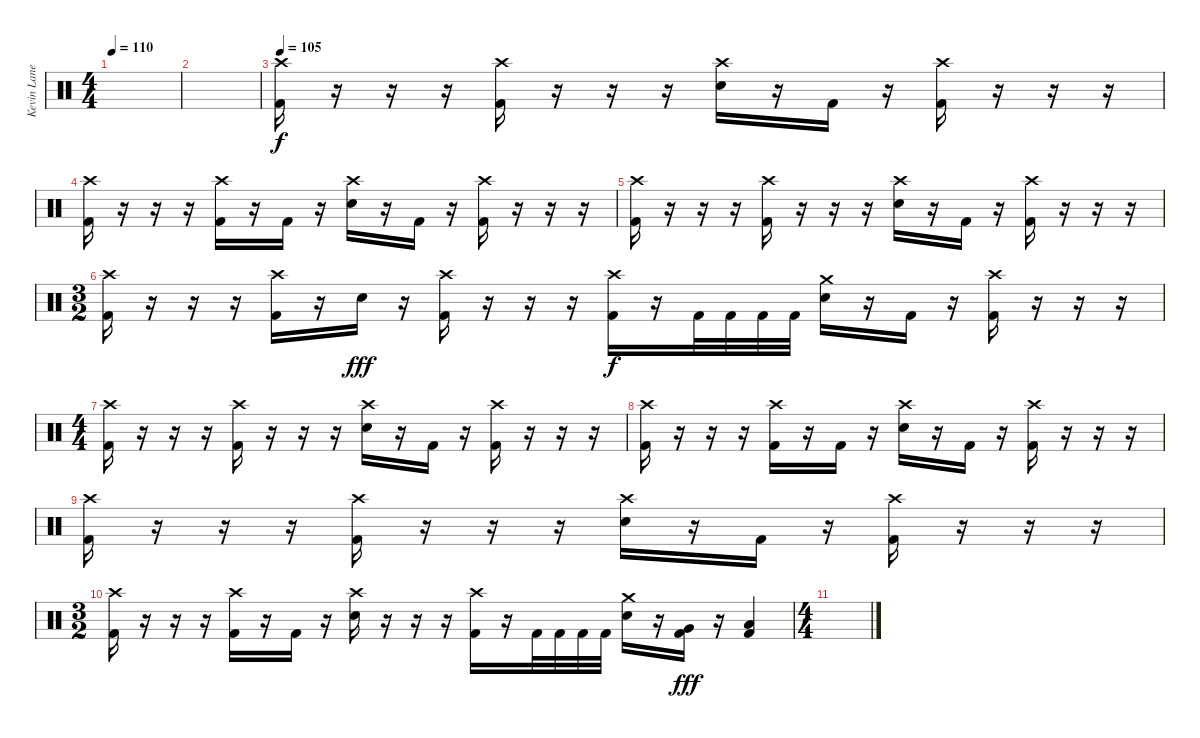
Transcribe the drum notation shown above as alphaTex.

\track ("Kevin Lane" "Kevin Lane") {instrument percussion}
\staff {score}
\articulation defaults
\ts (4 4)
\tempo 110
\clef neutral
\ks c
|
|
\tempo 105
("Crash high (hit)" "Kick (hit) 2").16{volume 16} r.16 r.16 r.16 ("Crash high (hit)" "Kick (hit) 2").16 r.16 r.16 r.16 ("Crash high (hit)" "Electric Snare (hit)").16 r.16 "Kick (hit) 2".16 r.16 ("Crash high (hit)" "Kick (hit) 2").16 r.16 r.16 r.16 |
("Crash high (hit)" "Kick (hit) 2").16 r.16 r.16 r.16 ("Crash high (hit)" "Kick (hit) 2").16 r.16 "Kick (hit) 2".16 r.16 ("Crash high (hit)" "Electric Snare (hit)").16 r.16 "Kick (hit) 2".16 r.16 ("Crash high (hit)" "Kick (hit) 2").16 r.16 r.16 r.16 |
("Crash high (hit)" "Kick (hit) 2").16 r.16 r.16 r.16 ("Crash high (hit)" "Kick (hit) 2").16 r.16 r.16 r.16 ("Crash high (hit)" "Electric Snare (hit)").16 r.16 "Kick (hit) 2".16 r.16 ("Crash high (hit)" "Kick (hit) 2").16 r.16 r.16 r.16 |
\ts (3 2)
("Crash high (hit)" "Kick (hit) 2").16 r.16 r.16 r.16 ("Crash high (hit)" "Kick (hit) 2").16 r.16 "Electric Snare (hit)".16{dy fff} r.16 ("Crash high (hit)" "Kick (hit) 2").16 r.16 r.16 r.16 ("Crash high (hit)" "Kick (hit) 2").16{dy f} r.16 "Kick (hit) 2".32 "Kick (hit) 2".32 "Kick (hit) 2".32 "Kick (hit) 2".32 ("Crash medium (hit)" "Electric Snare (hit)").16 r.16 "Kick (hit) 2".16 r.16 ("Crash high (hit)" "Kick (hit) 2").16 r.16 r.16 r.16 |
\ts (4 4)
("Crash high (hit)" "Kick (hit) 2").16{volume 16} r.16 r.16 r.16 ("Crash high (hit)" "Kick (hit) 2").16 r.16 r.16 r.16 ("Crash high (hit)" "Electric Snare (hit)").16 r.16 "Kick (hit) 2".16 r.16 ("Crash high (hit)" "Kick (hit) 2").16 r.16 r.16 r.16 |
("Crash high (hit)" "Kick (hit) 2").16 r.16 r.16 r.16 ("Crash high (hit)" "Kick (hit) 2").16 r.16 "Kick (hit) 2".16 r.16 ("Crash high (hit)" "Electric Snare (hit)").16 r.16 "Kick (hit) 2".16 r.16 ("Crash high (hit)" "Kick (hit) 2").16 r.16 r.16 r.16 |
("Crash high (hit)" "Kick (hit) 2").16 r.16 r.16 r.16 ("Crash high (hit)" "Kick (hit) 2").16 r.16 r.16 r.16 ("Crash high (hit)" "Electric Snare (hit)").16 r.16 "Kick (hit) 2".16 r.16 ("Crash high (hit)" "Kick (hit) 2").16 r.16 r.16 r.16 |
\ts (3 2)
("Crash high (hit)" "Kick (hit) 2").16 r.16 r.16 r.16 ("Crash high (hit)" "Kick (hit) 2").16 r.16 "Kick (hit) 2".16 r.16 ("Crash high (hit)" "Electric Snare (hit)").16 r.16 r.16 r.16 ("Crash high (hit)" "Kick (hit) 2").16 r.16 "Kick (hit) 2".32 "Kick (hit) 2".32 "Kick (hit) 2".32 "Kick (hit) 2".32 ("Crash medium (hit)" "Electric Snare (hit)").16 r.16 ("Very Low Tom (hit)" "Kick (hit) 2").16{dy fff} r.16 ("Low Floor Tom (hit)" "Kick (hit) 2").4 |
\ts (4 4)
